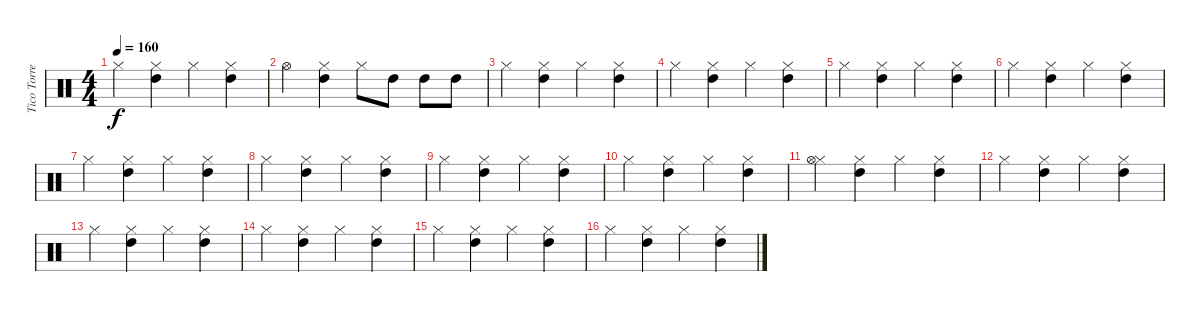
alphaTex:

\track ("Tico Torres" "Tico Torre") {instrument percussion}
\staff {score}
\articulation defaults
\ts (4 4)
\tempo 160
\clef neutral
\ks c "Hi-Hat (closed)".4{dy f}
("Hi-Hat (closed)" "High Tom (hit)").4 "Hi-Hat (closed)".4 ("Hi-Hat (closed)" "High Tom (hit)").4 |
"Hi-Hat (open)".4 ("Hi-Hat (closed)" "High Tom (hit)").4 "Hi-Hat (closed)".8 "High Tom (hit)".8 "High Tom (hit)".8 "High Tom (hit)".8 |
"Hi-Hat (closed)".4 ("Hi-Hat (closed)" "High Tom (hit)").4 "Hi-Hat (closed)".4 ("Hi-Hat (closed)" "High Tom (hit)").4 |
"Hi-Hat (closed)".4 ("Hi-Hat (closed)" "High Tom (hit)").4 "Hi-Hat (closed)".4 ("Hi-Hat (closed)" "High Tom (hit)").4 |
"Hi-Hat (closed)".4 ("Hi-Hat (closed)" "High Tom (hit)").4 "Hi-Hat (closed)".4 ("Hi-Hat (closed)" "High Tom (hit)").4 |
"Hi-Hat (closed)".4 ("Hi-Hat (closed)" "High Tom (hit)").4 "Hi-Hat (closed)".4 ("Hi-Hat (closed)" "High Tom (hit)").4 |
"Hi-Hat (closed)".4 ("Hi-Hat (closed)" "High Tom (hit)").4 "Hi-Hat (closed)".4 ("Hi-Hat (closed)" "High Tom (hit)").4 |
"Hi-Hat (closed)".4 ("Hi-Hat (closed)" "High Tom (hit)").4 "Hi-Hat (closed)".4 ("Hi-Hat (closed)" "High Tom (hit)").4 |
"Hi-Hat (closed)".4 ("Hi-Hat (closed)" "High Tom (hit)").4 "Hi-Hat (closed)".4 ("Hi-Hat (closed)" "High Tom (hit)").4 |
"Hi-Hat (closed)".4 ("Hi-Hat (closed)" "High Tom (hit)").4 "Hi-Hat (closed)".4 ("Hi-Hat (closed)" "High Tom (hit)").4 |
("Hi-Hat (closed)" "Hi-Hat (open)").4 ("Hi-Hat (closed)" "High Tom (hit)").4 "Hi-Hat (closed)".4 ("Hi-Hat (closed)" "High Tom (hit)").4 |
"Hi-Hat (closed)".4 ("Hi-Hat (closed)" "High Tom (hit)").4 "Hi-Hat (closed)".4 ("Hi-Hat (closed)" "High Tom (hit)").4 |
"Hi-Hat (closed)".4 ("Hi-Hat (closed)" "High Tom (hit)").4 "Hi-Hat (closed)".4 ("Hi-Hat (closed)" "High Tom (hit)").4 |
"Hi-Hat (closed)".4 ("Hi-Hat (closed)" "High Tom (hit)").4 "Hi-Hat (closed)".4 ("Hi-Hat (closed)" "High Tom (hit)").4 |
"Hi-Hat (closed)".4 ("Hi-Hat (closed)" "High Tom (hit)").4 "Hi-Hat (closed)".4 ("Hi-Hat (closed)" "High Tom (hit)").4 |
"Hi-Hat (closed)".4 ("Hi-Hat (closed)" "High Tom (hit)").4 "Hi-Hat (closed)".4 ("Hi-Hat (closed)" "High Tom (hit)").4
